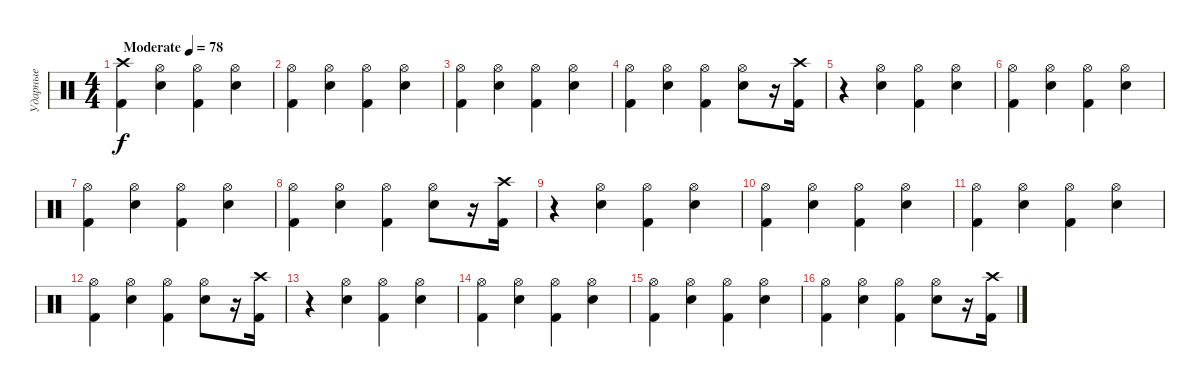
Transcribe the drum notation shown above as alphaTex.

\track ("Ударные" "Ударные") {instrument percussion}
\staff {score}
\articulation defaults
\ts (4 4)
\tempo (78 "Moderate")
\clef neutral
\ks c
("Crash high (hit)" "Kick (hit) 2").4{dy f volume 0} ("Hi-Hat (open)" "Snare (hit) 2").4{volume 13} ("Hi-Hat (open)" "Kick (hit) 2").4 ("Hi-Hat (open)" "Snare (hit) 2").4 |
("Hi-Hat (open)" "Kick (hit) 2").4 ("Hi-Hat (open)" "Snare (hit) 2").4 ("Hi-Hat (open)" "Kick (hit) 2").4 ("Hi-Hat (open)" "Snare (hit) 2").4 |
("Hi-Hat (open)" "Kick (hit) 2").4 ("Hi-Hat (open)" "Snare (hit) 2").4 ("Hi-Hat (open)" "Kick (hit) 2").4 ("Hi-Hat (open)" "Snare (hit) 2").4 |
("Hi-Hat (open)" "Kick (hit) 2").4 ("Hi-Hat (open)" "Snare (hit) 2").4 ("Hi-Hat (open)" "Kick (hit) 2").4 ("Hi-Hat (open)" "Snare (hit) 2").8 r.16 ("Crash high (hit)" "Kick (hit) 2").16 |
r.4 ("Hi-Hat (open)" "Snare (hit) 2").4 ("Hi-Hat (open)" "Kick (hit) 2").4 ("Hi-Hat (open)" "Snare (hit) 2").4 |
("Hi-Hat (open)" "Kick (hit) 2").4 ("Hi-Hat (open)" "Snare (hit) 2").4 ("Hi-Hat (open)" "Kick (hit) 2").4 ("Hi-Hat (open)" "Snare (hit) 2").4 |
("Hi-Hat (open)" "Kick (hit) 2").4 ("Hi-Hat (open)" "Snare (hit) 2").4 ("Hi-Hat (open)" "Kick (hit) 2").4 ("Hi-Hat (open)" "Snare (hit) 2").4 |
("Hi-Hat (open)" "Kick (hit) 2").4 ("Hi-Hat (open)" "Snare (hit) 2").4 ("Hi-Hat (open)" "Kick (hit) 2").4 ("Hi-Hat (open)" "Snare (hit) 2").8 r.16 ("Crash high (hit)" "Kick (hit) 2").16 |
r.4 ("Hi-Hat (open)" "Snare (hit) 2").4 ("Hi-Hat (open)" "Kick (hit) 2").4 ("Hi-Hat (open)" "Snare (hit) 2").4 |
("Hi-Hat (open)" "Kick (hit) 2").4 ("Hi-Hat (open)" "Snare (hit) 2").4 ("Hi-Hat (open)" "Kick (hit) 2").4 ("Hi-Hat (open)" "Snare (hit) 2").4 |
("Hi-Hat (open)" "Kick (hit) 2").4 ("Hi-Hat (open)" "Snare (hit) 2").4 ("Hi-Hat (open)" "Kick (hit) 2").4 ("Hi-Hat (open)" "Snare (hit) 2").4 |
("Hi-Hat (open)" "Kick (hit) 2").4 ("Hi-Hat (open)" "Snare (hit) 2").4 ("Hi-Hat (open)" "Kick (hit) 2").4 ("Hi-Hat (open)" "Snare (hit) 2").8 r.16 ("Crash high (hit)" "Kick (hit) 2").16 |
r.4 ("Hi-Hat (open)" "Snare (hit) 2").4 ("Hi-Hat (open)" "Kick (hit) 2").4 ("Hi-Hat (open)" "Snare (hit) 2").4 |
("Hi-Hat (open)" "Kick (hit) 2").4 ("Hi-Hat (open)" "Snare (hit) 2").4 ("Hi-Hat (open)" "Kick (hit) 2").4 ("Hi-Hat (open)" "Snare (hit) 2").4 |
("Hi-Hat (open)" "Kick (hit) 2").4 ("Hi-Hat (open)" "Snare (hit) 2").4 ("Hi-Hat (open)" "Kick (hit) 2").4 ("Hi-Hat (open)" "Snare (hit) 2").4 |
("Hi-Hat (open)" "Kick (hit) 2").4 ("Hi-Hat (open)" "Snare (hit) 2").4 ("Hi-Hat (open)" "Kick (hit) 2").4 ("Hi-Hat (open)" "Snare (hit) 2").8 r.16 ("Crash high (hit)" "Kick (hit) 2").16
